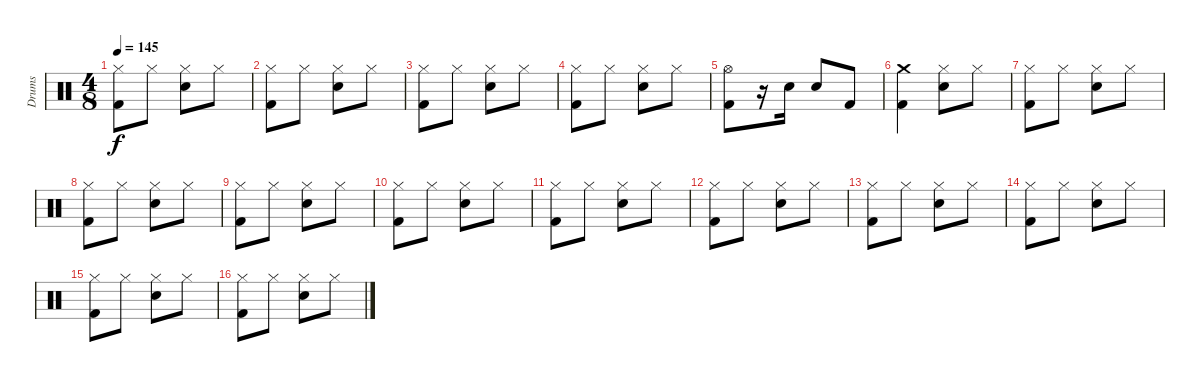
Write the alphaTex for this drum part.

\track ("Drums" "Drums") {instrument percussion}
\staff {score}
\articulation defaults
\ts (4 8)
\tempo 145
\clef neutral
\ks c
("Hi-Hat (closed)" "Kick (hit) 2").8{dy f} "Hi-Hat (closed)".8 ("Hi-Hat (closed)" "Snare (hit) 2").8 "Hi-Hat (closed)".8 |
("Hi-Hat (closed)" "Kick (hit) 2").8 "Hi-Hat (closed)".8 ("Hi-Hat (closed)" "Snare (hit) 2").8 "Hi-Hat (closed)".8 |
("Hi-Hat (closed)" "Kick (hit) 2").8 "Hi-Hat (closed)".8 ("Hi-Hat (closed)" "Snare (hit) 2").8 "Hi-Hat (closed)".8 |
("Hi-Hat (closed)" "Kick (hit) 2").8 "Hi-Hat (closed)".8 ("Hi-Hat (closed)" "Snare (hit) 2").8 "Hi-Hat (closed)".8 |
("Hi-Hat (open)" "Kick (hit) 2").8 r.16 "Snare (hit) 2".16 "Snare (hit) 2".8 "Kick (hit) 2".8 |
("Crash medium (hit)" "Kick (hit) 2").4 ("Hi-Hat (closed)" "Snare (hit) 2").8 "Hi-Hat (closed)".8 |
("Hi-Hat (closed)" "Kick (hit) 2").8 "Hi-Hat (closed)".8 ("Hi-Hat (closed)" "Snare (hit) 2").8 "Hi-Hat (closed)".8 |
("Hi-Hat (closed)" "Kick (hit) 2").8 "Hi-Hat (closed)".8 ("Hi-Hat (closed)" "Snare (hit) 2").8 "Hi-Hat (closed)".8 |
("Hi-Hat (closed)" "Kick (hit) 2").8 "Hi-Hat (closed)".8 ("Hi-Hat (closed)" "Snare (hit) 2").8 "Hi-Hat (closed)".8 |
("Hi-Hat (closed)" "Kick (hit) 2").8 "Hi-Hat (closed)".8 ("Hi-Hat (closed)" "Snare (hit) 2").8 "Hi-Hat (closed)".8 |
("Hi-Hat (closed)" "Kick (hit) 2").8 "Hi-Hat (closed)".8 ("Hi-Hat (closed)" "Snare (hit) 2").8 "Hi-Hat (closed)".8 |
("Hi-Hat (closed)" "Kick (hit) 2").8 "Hi-Hat (closed)".8 ("Hi-Hat (closed)" "Snare (hit) 2").8 "Hi-Hat (closed)".8 |
("Hi-Hat (closed)" "Kick (hit) 2").8 "Hi-Hat (closed)".8 ("Hi-Hat (closed)" "Snare (hit) 2").8 "Hi-Hat (closed)".8 |
("Hi-Hat (closed)" "Kick (hit) 2").8 "Hi-Hat (closed)".8 ("Hi-Hat (closed)" "Snare (hit) 2").8 "Hi-Hat (closed)".8 |
("Hi-Hat (closed)" "Kick (hit) 2").8 "Hi-Hat (closed)".8 ("Hi-Hat (closed)" "Snare (hit) 2").8 "Hi-Hat (closed)".8 |
("Hi-Hat (closed)" "Kick (hit) 2").8 "Hi-Hat (closed)".8 ("Hi-Hat (closed)" "Snare (hit) 2").8 "Hi-Hat (closed)".8
